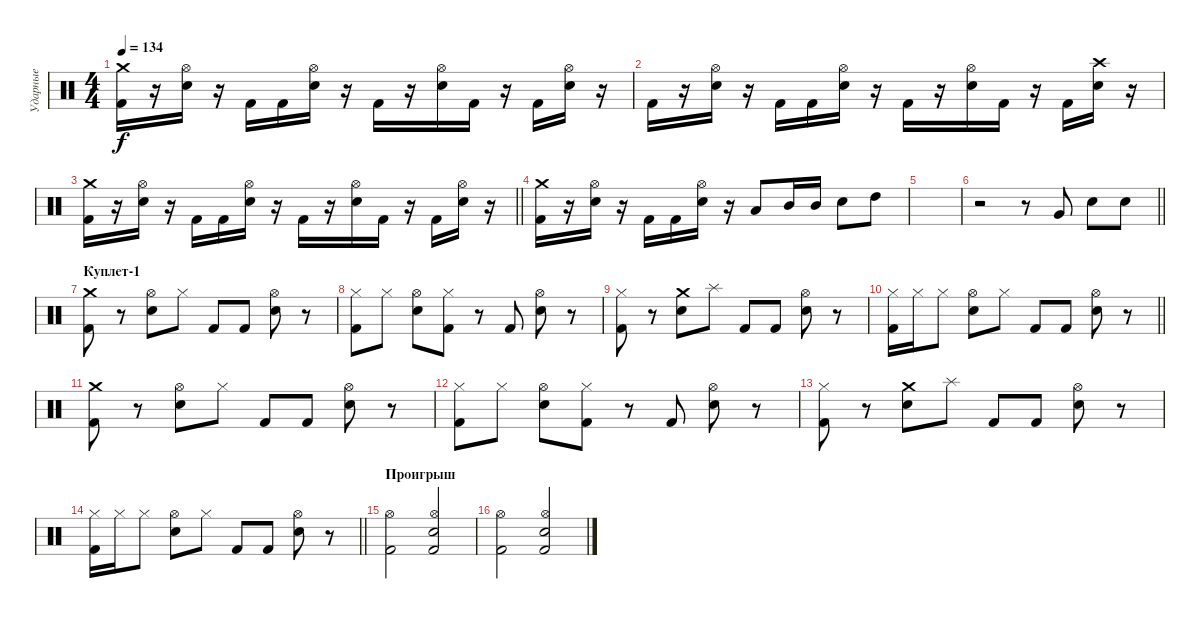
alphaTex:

\track ("Ударные" "Ударные") {instrument percussion}
\staff {score}
\articulation defaults
\ts (4 4)
\tempo 134
\clef neutral
\ks c
("Crash medium (hit)" "Kick (hit) 2").16{dy f} r.16 ("Hi-Hat (open)" "Snare (hit) 2").16 r.16 "Kick (hit) 2".16 "Kick (hit) 2".16 ("Hi-Hat (open)" "Snare (hit) 2").16 r.16 "Kick (hit) 2".16 r.16 ("Hi-Hat (open)" "Snare (hit) 2").16 "Kick (hit) 2".16 r.16 "Kick (hit) 2".16 ("Hi-Hat (open)" "Snare (hit) 2").16 r.16 |
"Kick (hit) 2".16 r.16 ("Hi-Hat (open)" "Snare (hit) 2").16 r.16 "Kick (hit) 2".16 "Kick (hit) 2".16 ("Hi-Hat (open)" "Snare (hit) 2").16 r.16 "Kick (hit) 2".16 r.16 ("Hi-Hat (open)" "Snare (hit) 2").16 "Kick (hit) 2".16 r.16 "Kick (hit) 2".16 ("Crash high (hit)" "Snare (hit) 2").16 r.16 |
\barLineRight lightlight
("Crash medium (hit)" "Kick (hit) 2").16 r.16 ("Hi-Hat (open)" "Snare (hit) 2").16 r.16 "Kick (hit) 2".16 "Kick (hit) 2".16 ("Hi-Hat (open)" "Snare (hit) 2").16 r.16 "Kick (hit) 2".16 r.16 ("Hi-Hat (open)" "Snare (hit) 2").16 "Kick (hit) 2".16 r.16 "Kick (hit) 2".16 ("Hi-Hat (open)" "Snare (hit) 2").16 r.16 |
("Crash medium (hit)" "Kick (hit) 2").16 r.16 ("Hi-Hat (open)" "Snare (hit) 2").16 r.16 "Kick (hit) 2".16 "Kick (hit) 2".16 ("Hi-Hat (open)" "Snare (hit) 2").16 r.16 "Low Tom (hit)".8 "Mid Tom (hit)".16 "Mid Tom (hit)".16 "Snare (hit) 2".8 "High Tom (hit)".8 |
|
\barLineRight lightlight
r.2 r.8 "Very Low Tom (hit)".8 "Snare (hit) 2".8 "Snare (hit) 2".8 |
\section ("" "Куплет-1")
("Crash medium (hit)" "Kick (hit) 2").8 r.8 ("Hi-Hat (open)" "Snare (hit) 2").8 "Hi-Hat (closed)".8 "Kick (hit) 2".8 "Kick (hit) 2".8 ("Hi-Hat (open)" "Snare (hit) 2").8 r.8 |
("Hi-Hat (closed)" "Kick (hit) 2").8 "Hi-Hat (closed)".8 ("Hi-Hat (open)" "Snare (hit) 2").8 ("Hi-Hat (closed)" "Kick (hit) 2").8 r.8 "Kick (hit) 2".8 ("Hi-Hat (open)" "Snare (hit) 2").8 r.8 |
("Hi-Hat (closed)" "Kick (hit) 2").8 r.8 ("Crash medium (hit)" "Snare (hit) 2").8 "Splash (hit)".8 "Kick (hit) 2".8 "Kick (hit) 2".8 ("Hi-Hat (open)" "Snare (hit) 2").8 r.8 |
\barLineRight lightlight
("Hi-Hat (closed)" "Kick (hit) 2").16 "Hi-Hat (closed)".16 "Hi-Hat (closed)".8 ("Hi-Hat (open)" "Snare (hit) 2").8 "Hi-Hat (closed)".8 "Kick (hit) 2".8 "Kick (hit) 2".8 ("Hi-Hat (open)" "Snare (hit) 2").8 r.8 |
("Crash medium (hit)" "Kick (hit) 2").8 r.8 ("Hi-Hat (open)" "Snare (hit) 2").8 "Hi-Hat (closed)".8 "Kick (hit) 2".8 "Kick (hit) 2".8 ("Hi-Hat (open)" "Snare (hit) 2").8 r.8 |
("Hi-Hat (closed)" "Kick (hit) 2").8 "Hi-Hat (closed)".8 ("Hi-Hat (open)" "Snare (hit) 2").8 ("Hi-Hat (closed)" "Kick (hit) 2").8 r.8 "Kick (hit) 2".8 ("Hi-Hat (open)" "Snare (hit) 2").8 r.8 |
("Hi-Hat (closed)" "Kick (hit) 2").8 r.8 ("Crash medium (hit)" "Snare (hit) 2").8 "Splash (hit)".8 "Kick (hit) 2".8 "Kick (hit) 2".8 ("Hi-Hat (open)" "Snare (hit) 2").8 r.8 |
\barLineRight lightlight
("Hi-Hat (closed)" "Kick (hit) 2").16 "Hi-Hat (closed)".16 "Hi-Hat (closed)".8 ("Hi-Hat (open)" "Snare (hit) 2").8 "Hi-Hat (closed)".8 "Kick (hit) 2".8 "Kick (hit) 2".8 ("Hi-Hat (open)" "Snare (hit) 2").8 r.8 |
\section ("" "Проигрыш")
("Hi-Hat (open)" "Kick (hit) 2").2 ("Hi-Hat (open)" "Snare (hit) 2" "Kick (hit) 2").2 |
("Hi-Hat (open)" "Kick (hit) 2").2 ("Hi-Hat (open)" "Snare (hit) 2" "Kick (hit) 2").2
